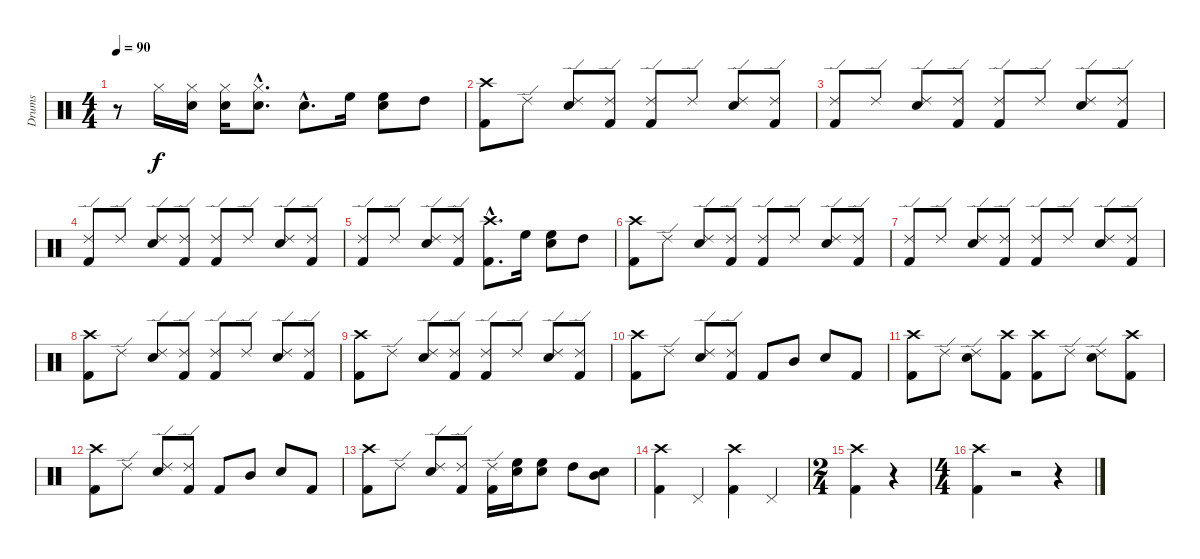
\track ("Drums" "Drums") {instrument percussion}
\staff {score}
\articulation defaults
\ts (4 4)
\tempo 90
\clef neutral
\ks c
r.8{dy f} "Hi-Hat (closed)".16 ("Snare (hit)" "Hi-Hat (closed)").16 ("Snare (hit)" "Hi-Hat (closed)").16 ("Snare (hit)"{hac} "Hi-Hat (closed)"{hac}).8{d} "Snare (hit) 2"{hac}.8{d} "High Floor Tom (hit)".16 ("Snare (hit)" "High Floor Tom (hit)").8 "High Tom (hit)".8 |
("Crash high (hit)" "Kick (hit) 2").8 "Ride (edge) 2".8 ("Snare (hit) 2" "Ride (edge) 2").8 ("Ride (edge) 2" "Kick (hit) 2").8 ("Ride (edge) 2" "Kick (hit) 2").8 "Ride (edge) 2".8 ("Snare (hit) 2" "Ride (edge) 2").8 ("Ride (edge) 2" "Kick (hit) 2").8 |
("Ride (edge) 2" "Kick (hit) 2").8 "Ride (edge) 2".8 ("Snare (hit) 2" "Ride (edge) 2").8 ("Ride (edge) 2" "Kick (hit) 2").8 ("Ride (edge) 2" "Kick (hit) 2").8 "Ride (edge) 2".8 ("Snare (hit) 2" "Ride (edge) 2").8 ("Ride (edge) 2" "Kick (hit) 2").8 |
("Ride (edge) 2" "Kick (hit) 2").8 "Ride (edge) 2".8 ("Snare (hit) 2" "Ride (edge) 2").8 ("Ride (edge) 2" "Kick (hit) 2").8 ("Ride (edge) 2" "Kick (hit) 2").8 "Ride (edge) 2".8 ("Snare (hit) 2" "Ride (edge) 2").8 ("Ride (edge) 2" "Kick (hit) 2").8 |
("Ride (edge) 2" "Kick (hit) 2").8 "Ride (edge) 2".8 ("Snare (hit) 2" "Ride (edge) 2").8 ("Ride (edge) 2" "Kick (hit) 2").8 ("Crash high (hit)"{hac} "Kick (hit) 2"{hac}).8{d} "High Floor Tom (hit)".16 ("Snare (hit)" "High Floor Tom (hit)").8 "High Tom (hit)".8 |
("Crash high (hit)" "Kick (hit) 2").8 "Ride (edge) 2".8 ("Snare (hit) 2" "Ride (edge) 2").8 ("Ride (edge) 2" "Kick (hit) 2").8 ("Ride (edge) 2" "Kick (hit) 2").8 "Ride (edge) 2".8 ("Snare (hit) 2" "Ride (edge) 2").8 ("Ride (edge) 2" "Kick (hit) 2").8 |
("Ride (edge) 2" "Kick (hit) 2").8 "Ride (edge) 2".8 ("Snare (hit) 2" "Ride (edge) 2").8 ("Ride (edge) 2" "Kick (hit) 2").8 ("Ride (edge) 2" "Kick (hit) 2").8 "Ride (edge) 2".8 ("Snare (hit) 2" "Ride (edge) 2").8 ("Ride (edge) 2" "Kick (hit) 2").8 |
("Crash high (hit)" "Kick (hit) 2").8 "Ride (edge) 2".8 ("Snare (hit) 2" "Ride (edge) 2").8 ("Ride (edge) 2" "Kick (hit) 2").8 ("Ride (edge) 2" "Kick (hit) 2").8 "Ride (edge) 2".8 ("Snare (hit) 2" "Ride (edge) 2").8 ("Ride (edge) 2" "Kick (hit) 2").8 |
("Crash high (hit)" "Kick (hit) 2").8 "Ride (edge) 2".8 ("Snare (hit) 2" "Ride (edge) 2").8 ("Ride (edge) 2" "Kick (hit) 2").8 ("Ride (edge) 2" "Kick (hit) 2").8 "Ride (edge) 2".8 ("Snare (hit) 2" "Ride (edge) 2").8 ("Ride (edge) 2" "Kick (hit) 2").8 |
("Crash high (hit)" "Kick (hit) 2").8 "Ride (edge) 2".8 ("Snare (hit) 2" "Ride (edge) 2").8 ("Ride (edge) 2" "Kick (hit) 2").8 "Kick (hit) 2".8 "Mid Tom (hit)".8 "Snare (hit) 2".8 "Kick (hit) 2".8 |
("Crash high (hit)" "Kick (hit) 2").8 "Ride (edge) 2".8 ("Snare (hit) 2" "Ride (edge) 2").8 ("Crash high (hit)" "Kick (hit) 2").8 ("Crash high (hit)" "Kick (hit) 2").8 "Ride (edge) 2".8 ("Snare (hit) 2" "Ride (edge) 2").8 ("Crash high (hit)" "Kick (hit) 2").8 |
("Crash high (hit)" "Kick (hit) 2").8 "Ride (edge) 2".8 ("Snare (hit) 2" "Ride (edge) 2").8 ("Ride (edge) 2" "Kick (hit) 2").8 "Kick (hit) 2".8 "Mid Tom (hit)".8 "Snare (hit) 2".8 "Kick (hit) 2".8 |
("Crash high (hit)" "Kick (hit) 2").8 "Ride (edge) 2".8 ("Snare (hit) 2" "Ride (edge) 2").8 ("Ride (edge) 2" "Kick (hit) 2").8 ("Ride (edge) 2" "Kick (hit) 2").16 ("Snare (hit)" "High Floor Tom (hit)").16 ("Snare (hit)" "High Floor Tom (hit)").8 "High Tom (hit)".8 ("Snare (hit)" "Mid Tom (hit)").8 |
("Crash high (hit)" "Kick (hit) 2").4 "Pedal Hi-Hat (hit)".4 ("Crash high (hit)" "Kick (hit) 2").4 "Pedal Hi-Hat (hit)".4 |
\ts (2 4)
("Crash high (hit)" "Kick (hit) 2").4 r.4 |
\ts (4 4)
("Crash high (hit)" "Kick (hit) 2").4 r.2 r.4
